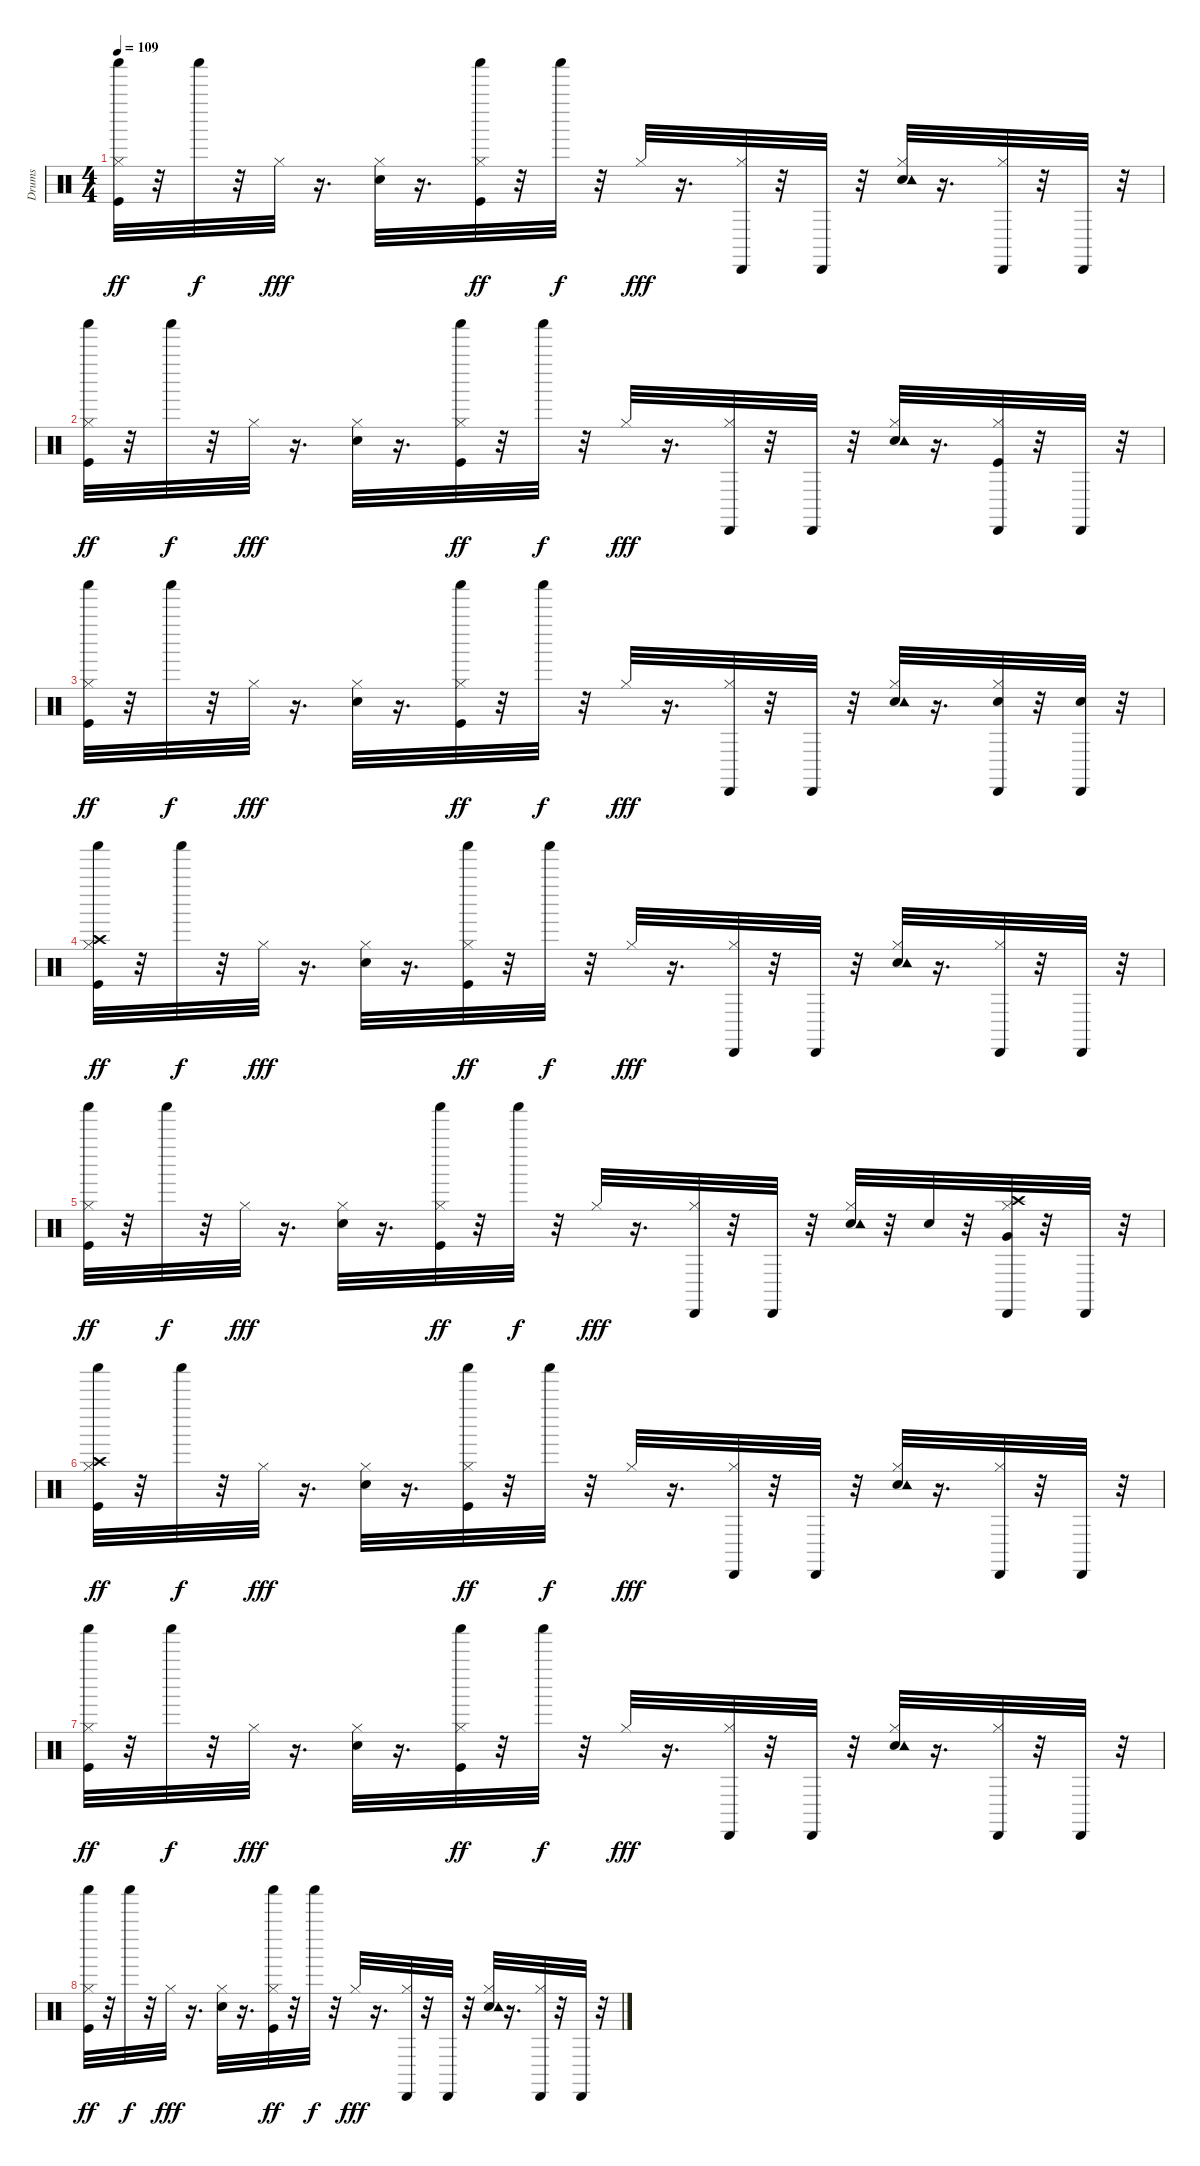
\track ("Drums               " "Drums     ") {instrument percussion}
\staff {score}
\articulation defaults
\ts (4 4)
\tempo 109
\clef neutral
\ks c
("Kick (hit)" "Hi-Hat (closed)" "Shaker (hit)").32{dy ff} r.32 "Shaker (hit)".32{dy f} r.32 "Hi-Hat (closed)".32{dy fff} r.16{d} ("Electric Snare (hit)" "Hi-Hat (closed)").32 r.16{d} ("Kick (hit)" "Hi-Hat (closed)" "Shaker (hit)").32{dy ff} r.32 "Shaker (hit)".32{dy f} r.32 "Hi-Hat (closed)".32{dy fff} r.16{d} ("Hi-Hat (closed)" "Cabasa (hit)").32 r.32 "Cabasa (hit)".32 r.32 ("Electric Snare (hit)" "Hi-Hat (closed)" "Tambourine (hit)").32 r.16{d} ("Hi-Hat (closed)" "Cabasa (hit)").32 r.32 "Cabasa (hit)".32 r.32 |
("Kick (hit)" "Hi-Hat (closed)" "Shaker (hit)").32{dy ff} r.32 "Shaker (hit)".32{dy f} r.32 "Hi-Hat (closed)".32{dy fff} r.16{d} ("Electric Snare (hit)" "Hi-Hat (closed)").32 r.16{d} ("Kick (hit)" "Hi-Hat (closed)" "Shaker (hit)").32{dy ff} r.32 "Shaker (hit)".32{dy f} r.32 "Hi-Hat (closed)".32{dy fff} r.16{d} ("Hi-Hat (closed)" "Cabasa (hit)").32 r.32 "Cabasa (hit)".32 r.32 ("Electric Snare (hit)" "Hi-Hat (closed)" "Tambourine (hit)").32 r.16{d} ("Kick (hit)" "Hi-Hat (closed)" "Cabasa (hit)").32 r.32 "Cabasa (hit)".32 r.32 |
("Kick (hit)" "Hi-Hat (closed)" "Shaker (hit)").32{dy ff} r.32 "Shaker (hit)".32{dy f} r.32 "Hi-Hat (closed)".32{dy fff} r.16{d} ("Electric Snare (hit)" "Hi-Hat (closed)").32 r.16{d} ("Kick (hit)" "Hi-Hat (closed)" "Shaker (hit)").32{dy ff} r.32 "Shaker (hit)".32{dy f} r.32 "Hi-Hat (closed)".32{dy fff} r.16{d} ("Hi-Hat (closed)" "Cabasa (hit)").32 r.32 "Cabasa (hit)".32 r.32 ("Electric Snare (hit)" "Hi-Hat (closed)" "Tambourine (hit)").32 r.16{d} ("Electric Snare (hit)" "Hi-Hat (closed)" "Cabasa (hit)").32 r.32 ("Electric Snare (hit)" "Cabasa (hit)").32 r.32 |
("Kick (hit)" "Hi-Hat (closed)" "Crash high (hit)" "Shaker (hit)").32{dy ff} r.32 "Shaker (hit)".32{dy f} r.32 "Hi-Hat (closed)".32{dy fff} r.16{d} ("Electric Snare (hit)" "Hi-Hat (closed)").32 r.16{d} ("Kick (hit)" "Hi-Hat (closed)" "Shaker (hit)").32{dy ff} r.32 "Shaker (hit)".32{dy f} r.32 "Hi-Hat (closed)".32{dy fff} r.16{d} ("Hi-Hat (closed)" "Cabasa (hit)").32 r.32 "Cabasa (hit)".32 r.32 ("Electric Snare (hit)" "Hi-Hat (closed)" "Tambourine (hit)").32 r.16{d} ("Hi-Hat (closed)" "Cabasa (hit)").32 r.32 "Cabasa (hit)".32 r.32 |
("Kick (hit)" "Hi-Hat (closed)" "Shaker (hit)").32{dy ff} r.32 "Shaker (hit)".32{dy f} r.32 "Hi-Hat (closed)".32{dy fff} r.16{d} ("Electric Snare (hit)" "Hi-Hat (closed)").32 r.16{d} ("Kick (hit)" "Hi-Hat (closed)" "Shaker (hit)").32{dy ff} r.32 "Shaker (hit)".32{dy f} r.32 "Hi-Hat (closed)".32{dy fff} r.16{d} ("Hi-Hat (closed)" "Cabasa (hit)").32 r.32 "Cabasa (hit)".32 r.32 ("Electric Snare (hit)" "Hi-Hat (closed)" "Tambourine (hit)").32 r.32 "Electric Snare (hit)".32 r.32 ("Hi-Hat (closed)" "Very Low Tom (hit)" "Crash high (hit)" "Cabasa (hit)").32 r.32 "Cabasa (hit)".32 r.32 |
("Kick (hit)" "Hi-Hat (closed)" "Crash high (hit)" "Shaker (hit)").32{dy ff} r.32 "Shaker (hit)".32{dy f} r.32 "Hi-Hat (closed)".32{dy fff} r.16{d} ("Electric Snare (hit)" "Hi-Hat (closed)").32 r.16{d} ("Kick (hit)" "Hi-Hat (closed)" "Shaker (hit)").32{dy ff} r.32 "Shaker (hit)".32{dy f} r.32 "Hi-Hat (closed)".32{dy fff} r.16{d} ("Hi-Hat (closed)" "Cabasa (hit)").32 r.32 "Cabasa (hit)".32 r.32 ("Electric Snare (hit)" "Hi-Hat (closed)" "Tambourine (hit)").32 r.16{d} ("Hi-Hat (closed)" "Cabasa (hit)").32 r.32 "Cabasa (hit)".32 r.32 |
("Kick (hit)" "Hi-Hat (closed)" "Shaker (hit)").32{dy ff} r.32 "Shaker (hit)".32{dy f} r.32 "Hi-Hat (closed)".32{dy fff} r.16{d} ("Electric Snare (hit)" "Hi-Hat (closed)").32 r.16{d} ("Kick (hit)" "Hi-Hat (closed)" "Shaker (hit)").32{dy ff} r.32 "Shaker (hit)".32{dy f} r.32 "Hi-Hat (closed)".32{dy fff} r.16{d} ("Hi-Hat (closed)" "Cabasa (hit)").32 r.32 "Cabasa (hit)".32 r.32 ("Electric Snare (hit)" "Hi-Hat (closed)" "Tambourine (hit)").32 r.16{d} ("Hi-Hat (closed)" "Cabasa (hit)").32 r.32 "Cabasa (hit)".32 r.32 |
("Kick (hit)" "Hi-Hat (closed)" "Shaker (hit)").32{dy ff} r.32 "Shaker (hit)".32{dy f} r.32 "Hi-Hat (closed)".32{dy fff} r.16{d} ("Electric Snare (hit)" "Hi-Hat (closed)").32 r.16{d} ("Kick (hit)" "Hi-Hat (closed)" "Shaker (hit)").32{dy ff} r.32 "Shaker (hit)".32{dy f} r.32 "Hi-Hat (closed)".32{dy fff} r.16{d} ("Hi-Hat (closed)" "Cabasa (hit)").32 r.32 "Cabasa (hit)".32 r.32 ("Electric Snare (hit)" "Hi-Hat (closed)" "Tambourine (hit)").32 r.16{d} ("Hi-Hat (closed)" "Cabasa (hit)").32 r.32 "Cabasa (hit)".32 r.32
